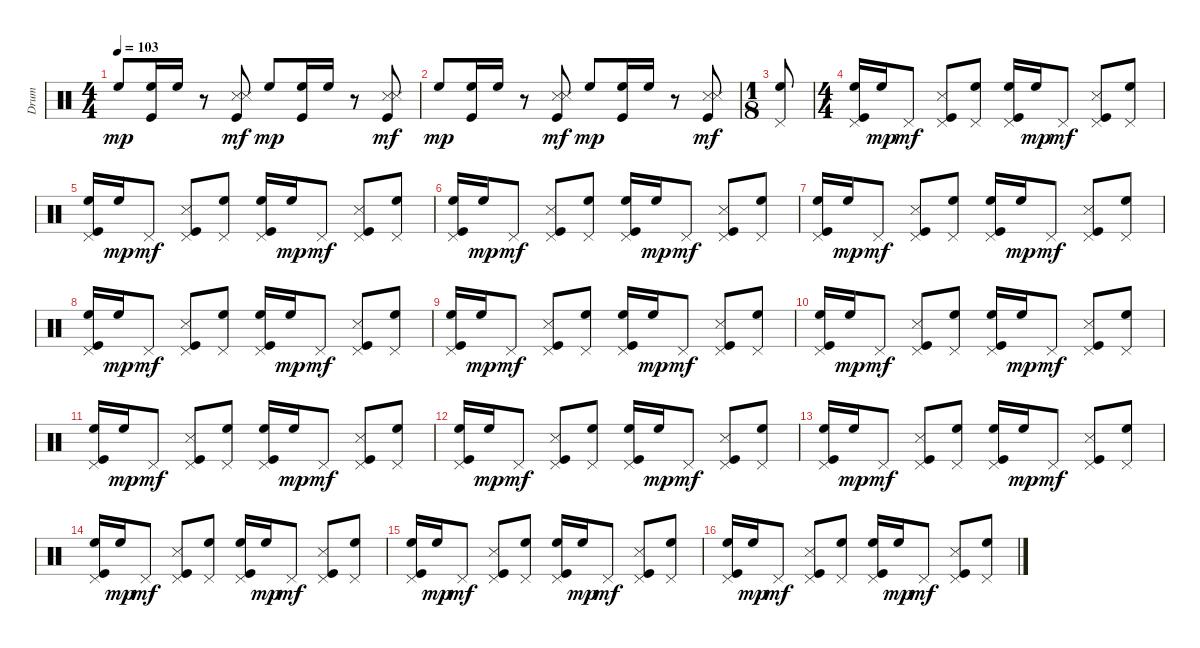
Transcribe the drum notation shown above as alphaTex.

\track ("Drum" "Drum") {instrument percussion}
\staff {score}
\articulation defaults
\ts (4 4)
\tempo 103
\clef neutral
\ks c "High Floor Tom (hit)".8{dy mp}
("Kick (hit)" "High Floor Tom (hit)").16 "High Floor Tom (hit)".16 r.8 ("Kick (hit)" "Snare (side stick) 3" "Metronome (hit)").8{dy mf} "High Floor Tom (hit)".8{dy mp} ("Kick (hit)" "High Floor Tom (hit)").16 "High Floor Tom (hit)".16 r.8 ("Kick (hit)" "Snare (side stick) 3" "Metronome (hit)").8{dy mf} |
"High Floor Tom (hit)".8{dy mp} ("Kick (hit)" "High Floor Tom (hit)").16 "High Floor Tom (hit)".16 r.8 ("Kick (hit)" "Snare (side stick) 3" "Metronome (hit)").8{dy mf} "High Floor Tom (hit)".8{dy mp} ("Kick (hit)" "High Floor Tom (hit)").16 "High Floor Tom (hit)".16 r.8 ("Kick (hit)" "Snare (side stick) 3" "Metronome (hit)").8{dy mf} |
\ts (1 8)
("High Floor Tom (hit)" "Pedal Hi-Hat (hit)").8 |
\ts (4 4)
("Kick (hit)" "High Floor Tom (hit)" "Pedal Hi-Hat (hit)").16 "High Floor Tom (hit)".16{dy mp} "Pedal Hi-Hat (hit)".8{dy mf} ("Kick (hit)" "Snare (side stick) 3" "Pedal Hi-Hat (hit)").8 ("High Floor Tom (hit)" "Pedal Hi-Hat (hit)").8 ("Kick (hit)" "High Floor Tom (hit)" "Pedal Hi-Hat (hit)").16 "High Floor Tom (hit)".16{dy mp} "Pedal Hi-Hat (hit)".8{dy mf} ("Kick (hit)" "Snare (side stick) 3" "Pedal Hi-Hat (hit)").8 ("High Floor Tom (hit)" "Pedal Hi-Hat (hit)").8 |
("Kick (hit)" "High Floor Tom (hit)" "Pedal Hi-Hat (hit)").16 "High Floor Tom (hit)".16{dy mp} "Pedal Hi-Hat (hit)".8{dy mf} ("Kick (hit)" "Snare (side stick) 3" "Pedal Hi-Hat (hit)").8 ("High Floor Tom (hit)" "Pedal Hi-Hat (hit)").8 ("Kick (hit)" "High Floor Tom (hit)" "Pedal Hi-Hat (hit)").16 "High Floor Tom (hit)".16{dy mp} "Pedal Hi-Hat (hit)".8{dy mf} ("Kick (hit)" "Snare (side stick) 3" "Pedal Hi-Hat (hit)").8 ("High Floor Tom (hit)" "Pedal Hi-Hat (hit)").8 |
("Kick (hit)" "High Floor Tom (hit)" "Pedal Hi-Hat (hit)").16 "High Floor Tom (hit)".16{dy mp} "Pedal Hi-Hat (hit)".8{dy mf} ("Kick (hit)" "Snare (side stick) 3" "Pedal Hi-Hat (hit)").8 ("High Floor Tom (hit)" "Pedal Hi-Hat (hit)").8 ("Kick (hit)" "High Floor Tom (hit)" "Pedal Hi-Hat (hit)").16 "High Floor Tom (hit)".16{dy mp} "Pedal Hi-Hat (hit)".8{dy mf} ("Kick (hit)" "Snare (side stick) 3" "Pedal Hi-Hat (hit)").8 ("High Floor Tom (hit)" "Pedal Hi-Hat (hit)").8 |
("Kick (hit)" "High Floor Tom (hit)" "Pedal Hi-Hat (hit)").16 "High Floor Tom (hit)".16{dy mp} "Pedal Hi-Hat (hit)".8{dy mf} ("Kick (hit)" "Snare (side stick) 3" "Pedal Hi-Hat (hit)").8 ("High Floor Tom (hit)" "Pedal Hi-Hat (hit)").8 ("Kick (hit)" "High Floor Tom (hit)" "Pedal Hi-Hat (hit)").16 "High Floor Tom (hit)".16{dy mp} "Pedal Hi-Hat (hit)".8{dy mf} ("Kick (hit)" "Snare (side stick) 3" "Pedal Hi-Hat (hit)").8 ("High Floor Tom (hit)" "Pedal Hi-Hat (hit)").8 |
("Kick (hit)" "High Floor Tom (hit)" "Pedal Hi-Hat (hit)").16 "High Floor Tom (hit)".16{dy mp} "Pedal Hi-Hat (hit)".8{dy mf} ("Kick (hit)" "Snare (side stick) 3" "Pedal Hi-Hat (hit)").8 ("High Floor Tom (hit)" "Pedal Hi-Hat (hit)").8 ("Kick (hit)" "High Floor Tom (hit)" "Pedal Hi-Hat (hit)").16 "High Floor Tom (hit)".16{dy mp} "Pedal Hi-Hat (hit)".8{dy mf} ("Kick (hit)" "Snare (side stick) 3" "Pedal Hi-Hat (hit)").8 ("High Floor Tom (hit)" "Pedal Hi-Hat (hit)").8 |
("Kick (hit)" "High Floor Tom (hit)" "Pedal Hi-Hat (hit)").16 "High Floor Tom (hit)".16{dy mp} "Pedal Hi-Hat (hit)".8{dy mf} ("Kick (hit)" "Snare (side stick) 3" "Pedal Hi-Hat (hit)").8 ("High Floor Tom (hit)" "Pedal Hi-Hat (hit)").8 ("Kick (hit)" "High Floor Tom (hit)" "Pedal Hi-Hat (hit)").16 "High Floor Tom (hit)".16{dy mp} "Pedal Hi-Hat (hit)".8{dy mf} ("Kick (hit)" "Snare (side stick) 3" "Pedal Hi-Hat (hit)").8 ("High Floor Tom (hit)" "Pedal Hi-Hat (hit)").8 |
("Kick (hit)" "High Floor Tom (hit)" "Pedal Hi-Hat (hit)").16 "High Floor Tom (hit)".16{dy mp} "Pedal Hi-Hat (hit)".8{dy mf} ("Kick (hit)" "Snare (side stick) 3" "Pedal Hi-Hat (hit)").8 ("High Floor Tom (hit)" "Pedal Hi-Hat (hit)").8 ("Kick (hit)" "High Floor Tom (hit)" "Pedal Hi-Hat (hit)").16 "High Floor Tom (hit)".16{dy mp} "Pedal Hi-Hat (hit)".8{dy mf} ("Kick (hit)" "Snare (side stick) 3" "Pedal Hi-Hat (hit)").8 ("High Floor Tom (hit)" "Pedal Hi-Hat (hit)").8 |
("Kick (hit)" "High Floor Tom (hit)" "Pedal Hi-Hat (hit)").16 "High Floor Tom (hit)".16{dy mp} "Pedal Hi-Hat (hit)".8{dy mf} ("Kick (hit)" "Snare (side stick) 3" "Pedal Hi-Hat (hit)").8 ("High Floor Tom (hit)" "Pedal Hi-Hat (hit)").8 ("Kick (hit)" "High Floor Tom (hit)" "Pedal Hi-Hat (hit)").16 "High Floor Tom (hit)".16{dy mp} "Pedal Hi-Hat (hit)".8{dy mf} ("Kick (hit)" "Snare (side stick) 3" "Pedal Hi-Hat (hit)").8 ("High Floor Tom (hit)" "Pedal Hi-Hat (hit)").8 |
("Kick (hit)" "High Floor Tom (hit)" "Pedal Hi-Hat (hit)").16 "High Floor Tom (hit)".16{dy mp} "Pedal Hi-Hat (hit)".8{dy mf} ("Kick (hit)" "Snare (side stick) 3" "Pedal Hi-Hat (hit)").8 ("High Floor Tom (hit)" "Pedal Hi-Hat (hit)").8 ("Kick (hit)" "High Floor Tom (hit)" "Pedal Hi-Hat (hit)").16 "High Floor Tom (hit)".16{dy mp} "Pedal Hi-Hat (hit)".8{dy mf} ("Kick (hit)" "Snare (side stick) 3" "Pedal Hi-Hat (hit)").8 ("High Floor Tom (hit)" "Pedal Hi-Hat (hit)").8 |
("Kick (hit)" "High Floor Tom (hit)" "Pedal Hi-Hat (hit)").16 "High Floor Tom (hit)".16{dy mp} "Pedal Hi-Hat (hit)".8{dy mf} ("Kick (hit)" "Snare (side stick) 3" "Pedal Hi-Hat (hit)").8 ("High Floor Tom (hit)" "Pedal Hi-Hat (hit)").8 ("Kick (hit)" "High Floor Tom (hit)" "Pedal Hi-Hat (hit)").16 "High Floor Tom (hit)".16{dy mp} "Pedal Hi-Hat (hit)".8{dy mf} ("Kick (hit)" "Snare (side stick) 3" "Pedal Hi-Hat (hit)").8 ("High Floor Tom (hit)" "Pedal Hi-Hat (hit)").8 |
("Kick (hit)" "High Floor Tom (hit)" "Pedal Hi-Hat (hit)").16 "High Floor Tom (hit)".16{dy mp} "Pedal Hi-Hat (hit)".8{dy mf} ("Kick (hit)" "Snare (side stick) 3" "Pedal Hi-Hat (hit)").8 ("High Floor Tom (hit)" "Pedal Hi-Hat (hit)").8 ("Kick (hit)" "High Floor Tom (hit)" "Pedal Hi-Hat (hit)").16 "High Floor Tom (hit)".16{dy mp} "Pedal Hi-Hat (hit)".8{dy mf} ("Kick (hit)" "Snare (side stick) 3" "Pedal Hi-Hat (hit)").8 ("High Floor Tom (hit)" "Pedal Hi-Hat (hit)").8 |
("Kick (hit)" "High Floor Tom (hit)" "Pedal Hi-Hat (hit)").16 "High Floor Tom (hit)".16{dy mp} "Pedal Hi-Hat (hit)".8{dy mf} ("Kick (hit)" "Snare (side stick) 3" "Pedal Hi-Hat (hit)").8 ("High Floor Tom (hit)" "Pedal Hi-Hat (hit)").8 ("Kick (hit)" "High Floor Tom (hit)" "Pedal Hi-Hat (hit)").16 "High Floor Tom (hit)".16{dy mp} "Pedal Hi-Hat (hit)".8{dy mf} ("Kick (hit)" "Snare (side stick) 3" "Pedal Hi-Hat (hit)").8 ("High Floor Tom (hit)" "Pedal Hi-Hat (hit)").8 |
("Kick (hit)" "High Floor Tom (hit)" "Pedal Hi-Hat (hit)").16 "High Floor Tom (hit)".16{dy mp} "Pedal Hi-Hat (hit)".8{dy mf} ("Kick (hit)" "Snare (side stick) 3" "Pedal Hi-Hat (hit)").8 ("High Floor Tom (hit)" "Pedal Hi-Hat (hit)").8 ("Kick (hit)" "High Floor Tom (hit)" "Pedal Hi-Hat (hit)").16 "High Floor Tom (hit)".16{dy mp} "Pedal Hi-Hat (hit)".8{dy mf} ("Kick (hit)" "Snare (side stick) 3" "Pedal Hi-Hat (hit)").8 ("High Floor Tom (hit)" "Pedal Hi-Hat (hit)").8
